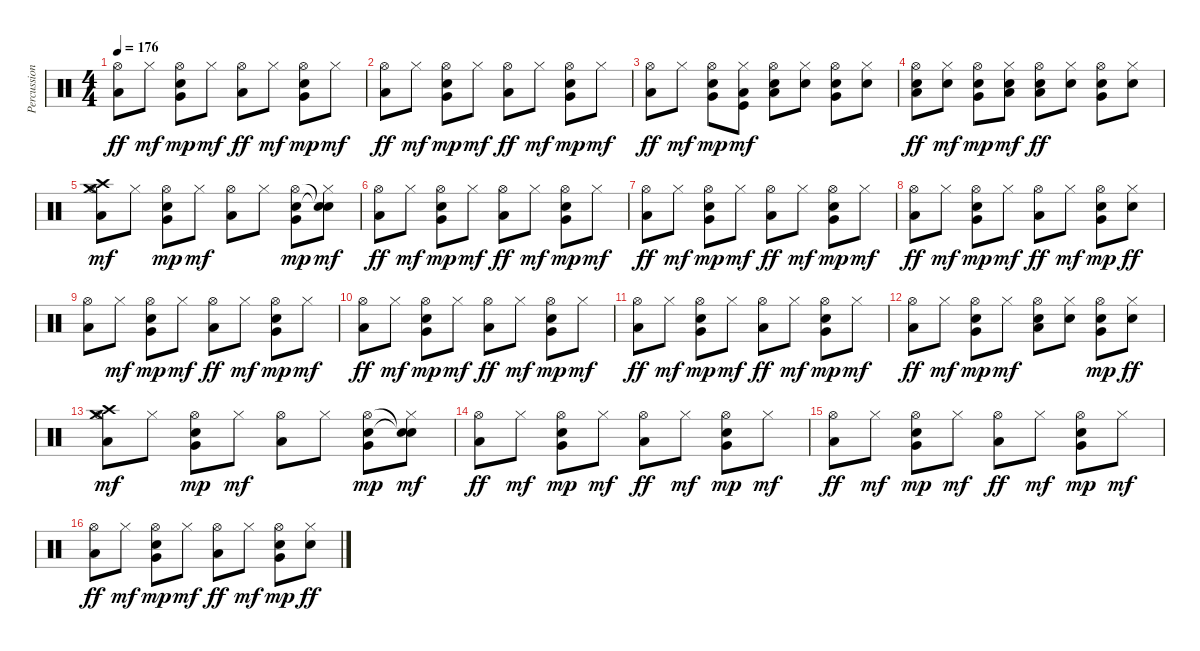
\track ("Percussions" "Percussion") {instrument percussion}
\staff {score}
\articulation defaults
\ts (4 4)
\tempo 176
\clef neutral
\ks c
("Hi-Hat (open)" "Low Floor Tom (hit)").8{dy ff} "Hi-Hat (closed)".8{dy mf} ("Hi-Hat (open)" "Electric Snare (hit)" "Very Low Tom (hit)").8{dy mp} "Hi-Hat (closed)".8{dy mf} ("Hi-Hat (open)" "Low Floor Tom (hit)").8{dy ff} "Hi-Hat (closed)".8{dy mf} ("Hi-Hat (open)" "Electric Snare (hit)" "Very Low Tom (hit)").8{dy mp} "Hi-Hat (closed)".8{dy mf} |
("Hi-Hat (open)" "Low Floor Tom (hit)").8{dy ff} "Hi-Hat (closed)".8{dy mf} ("Hi-Hat (open)" "Electric Snare (hit)" "Very Low Tom (hit)").8{dy mp} "Hi-Hat (closed)".8{dy mf} ("Hi-Hat (open)" "Low Floor Tom (hit)").8{dy ff} "Hi-Hat (closed)".8{dy mf} ("Hi-Hat (open)" "Electric Snare (hit)" "Very Low Tom (hit)").8{dy mp} "Hi-Hat (closed)".8{dy mf} |
("Hi-Hat (open)" "Low Floor Tom (hit)").8{dy ff} "Hi-Hat (closed)".8{dy mf} ("Hi-Hat (open)" "Electric Snare (hit)" "Very Low Tom (hit)").8{dy mp} ("Hi-Hat (closed)" "Low Floor Tom (hit)" "Kick (hit)").8{dy mf} ("Hi-Hat (open)" "Low Floor Tom (hit)" "Electric Snare (hit)").8 ("Hi-Hat (closed)" "Electric Snare (hit)").8 ("Hi-Hat (open)" "Very Low Tom (hit)" "Electric Snare (hit)").8 ("Hi-Hat (closed)" "Electric Snare (hit)").8 |
("Hi-Hat (open)" "Low Floor Tom (hit)" "Electric Snare (hit)").8{dy ff} ("Hi-Hat (closed)" "Electric Snare (hit)").8{dy mf} ("Hi-Hat (open)" "Very Low Tom (hit)" "Electric Snare (hit)").8{dy mp} ("Hi-Hat (closed)" "Low Floor Tom (hit)" "Electric Snare (hit)").8{dy mf} ("Hi-Hat (open)" "Low Floor Tom (hit)" "Electric Snare (hit)").8{dy ff} ("Hi-Hat (closed)" "Electric Snare (hit)").8 ("Hi-Hat (open)" "Very Low Tom (hit)" "Electric Snare (hit)").8 ("Hi-Hat (closed)" "Electric Snare (hit)").8 |
("Crash high (hit)" "Crash medium (hit)" "Hi-Hat (open)" "Low Floor Tom (hit)").8{dy mf} "Hi-Hat (closed)".8 ("Hi-Hat (open)" "Electric Snare (hit)" "Very Low Tom (hit)").8{dy mp} "Hi-Hat (closed)".8{dy mf} ("Hi-Hat (open)" "Low Floor Tom (hit)").8 "Hi-Hat (closed)".8 ("Hi-Hat (open)" "Electric Snare (hit)" "Very Low Tom (hit)").8{dy mp} ("Snare (hit)"{t} "Snare (hit)"{t} "Hi-Hat (closed)").8{dy mf} |
("Hi-Hat (open)" "Low Floor Tom (hit)").8{dy ff} "Hi-Hat (closed)".8{dy mf} ("Hi-Hat (open)" "Electric Snare (hit)" "Very Low Tom (hit)").8{dy mp} "Hi-Hat (closed)".8{dy mf} ("Hi-Hat (open)" "Low Floor Tom (hit)").8{dy ff} "Hi-Hat (closed)".8{dy mf} ("Hi-Hat (open)" "Electric Snare (hit)" "Very Low Tom (hit)").8{dy mp} "Hi-Hat (closed)".8{dy mf} |
("Hi-Hat (open)" "Low Floor Tom (hit)").8{dy ff} "Hi-Hat (closed)".8{dy mf} ("Hi-Hat (open)" "Electric Snare (hit)" "Very Low Tom (hit)").8{dy mp} "Hi-Hat (closed)".8{dy mf} ("Hi-Hat (open)" "Low Floor Tom (hit)").8{dy ff} "Hi-Hat (closed)".8{dy mf} ("Hi-Hat (open)" "Electric Snare (hit)" "Very Low Tom (hit)").8{dy mp} "Hi-Hat (closed)".8{dy mf} |
("Hi-Hat (open)" "Low Floor Tom (hit)").8{dy ff} "Hi-Hat (closed)".8{dy mf} ("Hi-Hat (open)" "Electric Snare (hit)" "Very Low Tom (hit)").8{dy mp} "Hi-Hat (closed)".8{dy mf} ("Hi-Hat (open)" "Low Floor Tom (hit)").8{dy ff} "Hi-Hat (closed)".8{dy mf} ("Hi-Hat (open)" "Very Low Tom (hit)" "Electric Snare (hit)").8{dy mp} ("Hi-Hat (closed)" "Electric Snare (hit)").8{dy ff} |
("Hi-Hat (open)" "Low Floor Tom (hit)").8 "Hi-Hat (closed)".8{dy mf} ("Hi-Hat (open)" "Electric Snare (hit)" "Very Low Tom (hit)").8{dy mp} "Hi-Hat (closed)".8{dy mf} ("Hi-Hat (open)" "Low Floor Tom (hit)").8{dy ff} "Hi-Hat (closed)".8{dy mf} ("Hi-Hat (open)" "Electric Snare (hit)" "Very Low Tom (hit)").8{dy mp} "Hi-Hat (closed)".8{dy mf} |
("Hi-Hat (open)" "Low Floor Tom (hit)").8{dy ff} "Hi-Hat (closed)".8{dy mf} ("Hi-Hat (open)" "Electric Snare (hit)" "Very Low Tom (hit)").8{dy mp} "Hi-Hat (closed)".8{dy mf} ("Hi-Hat (open)" "Low Floor Tom (hit)").8{dy ff} "Hi-Hat (closed)".8{dy mf} ("Hi-Hat (open)" "Electric Snare (hit)" "Very Low Tom (hit)").8{dy mp} "Hi-Hat (closed)".8{dy mf} |
("Hi-Hat (open)" "Low Floor Tom (hit)").8{dy ff} "Hi-Hat (closed)".8{dy mf} ("Hi-Hat (open)" "Electric Snare (hit)" "Very Low Tom (hit)").8{dy mp} "Hi-Hat (closed)".8{dy mf} ("Hi-Hat (open)" "Low Floor Tom (hit)").8{dy ff} "Hi-Hat (closed)".8{dy mf} ("Hi-Hat (open)" "Electric Snare (hit)" "Very Low Tom (hit)").8{dy mp} "Hi-Hat (closed)".8{dy mf} |
("Hi-Hat (open)" "Low Floor Tom (hit)").8{dy ff} "Hi-Hat (closed)".8{dy mf} ("Hi-Hat (open)" "Electric Snare (hit)" "Very Low Tom (hit)").8{dy mp} "Hi-Hat (closed)".8{dy mf} ("Hi-Hat (open)" "Low Floor Tom (hit)" "Electric Snare (hit)").8 ("Hi-Hat (closed)" "Electric Snare (hit)").8 ("Hi-Hat (open)" "Very Low Tom (hit)" "Electric Snare (hit)").8{dy mp} ("Hi-Hat (closed)" "Electric Snare (hit)").8{dy ff} |
("Crash high (hit)" "Crash medium (hit)" "Hi-Hat (open)" "Low Floor Tom (hit)").8{dy mf} "Hi-Hat (closed)".8 ("Hi-Hat (open)" "Electric Snare (hit)" "Very Low Tom (hit)").8{dy mp} "Hi-Hat (closed)".8{dy mf} ("Hi-Hat (open)" "Low Floor Tom (hit)").8 "Hi-Hat (closed)".8 ("Hi-Hat (open)" "Electric Snare (hit)" "Very Low Tom (hit)").8{dy mp} ("Snare (hit)"{t} "Snare (hit)"{t} "Hi-Hat (closed)").8{dy mf} |
("Hi-Hat (open)" "Low Floor Tom (hit)").8{dy ff} "Hi-Hat (closed)".8{dy mf} ("Hi-Hat (open)" "Electric Snare (hit)" "Very Low Tom (hit)").8{dy mp} "Hi-Hat (closed)".8{dy mf} ("Hi-Hat (open)" "Low Floor Tom (hit)").8{dy ff} "Hi-Hat (closed)".8{dy mf} ("Hi-Hat (open)" "Electric Snare (hit)" "Very Low Tom (hit)").8{dy mp} "Hi-Hat (closed)".8{dy mf} |
("Hi-Hat (open)" "Low Floor Tom (hit)").8{dy ff} "Hi-Hat (closed)".8{dy mf} ("Hi-Hat (open)" "Electric Snare (hit)" "Very Low Tom (hit)").8{dy mp} "Hi-Hat (closed)".8{dy mf} ("Hi-Hat (open)" "Low Floor Tom (hit)").8{dy ff} "Hi-Hat (closed)".8{dy mf} ("Hi-Hat (open)" "Electric Snare (hit)" "Very Low Tom (hit)").8{dy mp} "Hi-Hat (closed)".8{dy mf} |
("Hi-Hat (open)" "Low Floor Tom (hit)").8{dy ff} "Hi-Hat (closed)".8{dy mf} ("Hi-Hat (open)" "Electric Snare (hit)" "Very Low Tom (hit)").8{dy mp} "Hi-Hat (closed)".8{dy mf} ("Hi-Hat (open)" "Low Floor Tom (hit)").8{dy ff} "Hi-Hat (closed)".8{dy mf} ("Hi-Hat (open)" "Very Low Tom (hit)" "Electric Snare (hit)").8{dy mp} ("Hi-Hat (closed)" "Electric Snare (hit)").8{dy ff}
